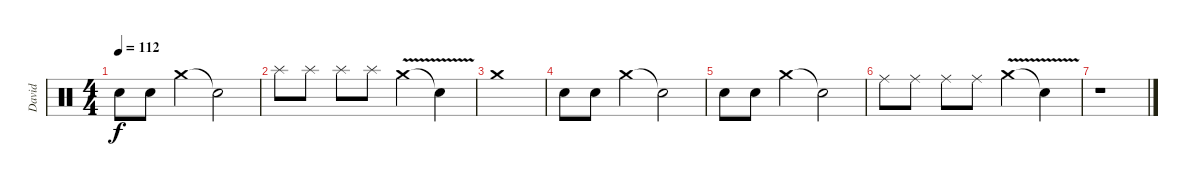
\track ("David" "David") {instrument percussion}
\staff {score}
\articulation defaults
\ts (4 4)
\tempo 112
\clef neutral
\ks c "Snare (hit) 2".8{dy f} "Snare (hit) 2".8 "Crash medium (hit)".4 "Snare (hit)"{t}.2
|
"Splash (hit)".8 "Splash (hit)".8 "Splash (hit)".8 "Splash (hit)".8 "Crash medium (hit)"{v}.4 "Snare (hit)"{t}.4 |
"Crash medium (hit)".1 |
"Snare (hit) 2".8 "Snare (hit) 2".8 "Crash medium (hit)".4 "Snare (hit)"{t}.2 |
"Snare (hit) 2".8 "Snare (hit) 2".8 "Crash medium (hit)".4 "Snare (hit)"{t}.2 |
"Ride (middle)".8 "Ride (middle)".8 "Ride (middle)".8 "Ride (middle)".8 "Crash medium (hit)"{v}.4 "Snare (hit)"{t}.4 |
r.1
